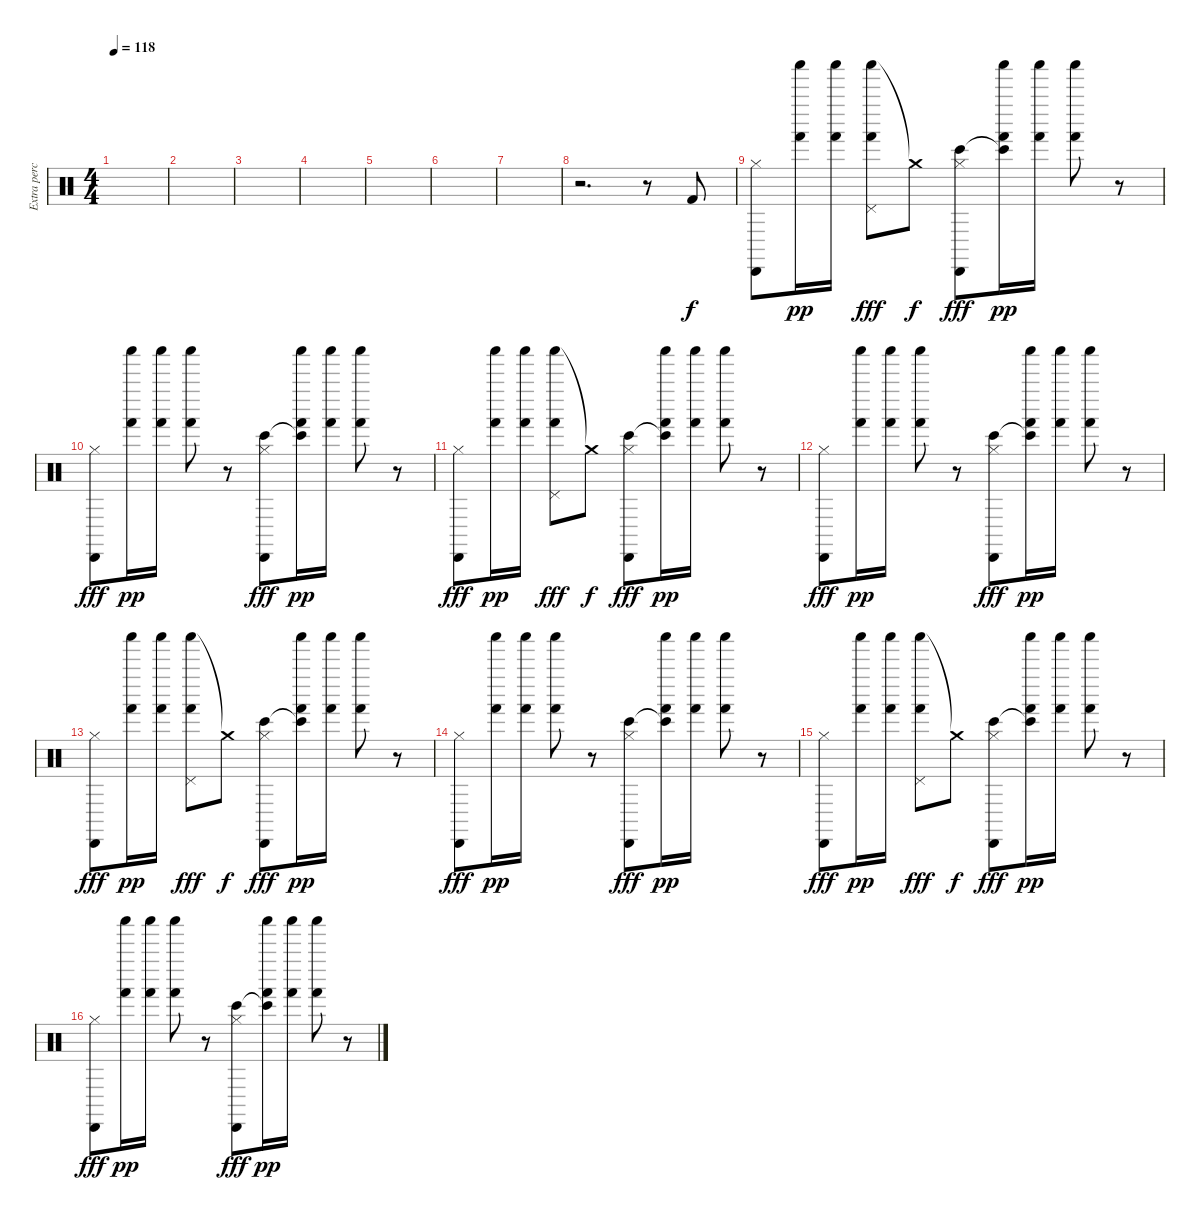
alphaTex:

\track ("Extra percussion" "Extra perc") {instrument percussion}
\staff {score}
\articulation defaults
\ts (4 4)
\tempo 118
\clef neutral
\ks c
|
|
|
|
|
|
|
r.2{d} r.8 "Kick (hit) 2".8 |
("Cabasa (hit)" "Hi-Hat (closed)").8 ("Shaker (hit)" "Hand (hit)").16{dy pp} ("Shaker (hit)" "Hand (hit)").16 ("Shaker (hit)" "Hand (hit)" "Pedal Hi-Hat (hit)").8{dy fff} "Crash medium (hit)"{t}.8{dy f} ("Cabasa (hit)" "Hi-Hat (closed)" "Bongo High (hit)").8{dy fff} ("Shaker (hit)" "Hand (hit)" "Bongo High (hit)"{t}).16{dy pp} ("Shaker (hit)" "Hand (hit)").16 ("Shaker (hit)" "Hand (hit)").8 r.8 |
("Cabasa (hit)" "Hi-Hat (closed)").8{dy fff} ("Shaker (hit)" "Hand (hit)").16{dy pp} ("Shaker (hit)" "Hand (hit)").16 ("Shaker (hit)" "Hand (hit)").8 r.8 ("Cabasa (hit)" "Hi-Hat (closed)" "Bongo High (hit)").8{dy fff} ("Shaker (hit)" "Hand (hit)" "Bongo High (hit)"{t}).16{dy pp} ("Shaker (hit)" "Hand (hit)").16 ("Shaker (hit)" "Hand (hit)").8 r.8 |
("Cabasa (hit)" "Hi-Hat (closed)").8{dy fff} ("Shaker (hit)" "Hand (hit)").16{dy pp} ("Shaker (hit)" "Hand (hit)").16 ("Shaker (hit)" "Hand (hit)" "Pedal Hi-Hat (hit)").8{dy fff} "Crash medium (hit)"{t}.8{dy f} ("Cabasa (hit)" "Hi-Hat (closed)" "Bongo High (hit)").8{dy fff} ("Shaker (hit)" "Hand (hit)" "Bongo High (hit)"{t}).16{dy pp} ("Shaker (hit)" "Hand (hit)").16 ("Shaker (hit)" "Hand (hit)").8 r.8 |
("Cabasa (hit)" "Hi-Hat (closed)").8{dy fff} ("Shaker (hit)" "Hand (hit)").16{dy pp} ("Shaker (hit)" "Hand (hit)").16 ("Shaker (hit)" "Hand (hit)").8 r.8 ("Cabasa (hit)" "Hi-Hat (closed)" "Bongo High (hit)").8{dy fff} ("Shaker (hit)" "Hand (hit)" "Bongo High (hit)"{t}).16{dy pp} ("Shaker (hit)" "Hand (hit)").16 ("Shaker (hit)" "Hand (hit)").8 r.8 |
("Cabasa (hit)" "Hi-Hat (closed)").8{dy fff} ("Shaker (hit)" "Hand (hit)").16{dy pp} ("Shaker (hit)" "Hand (hit)").16 ("Shaker (hit)" "Hand (hit)" "Pedal Hi-Hat (hit)").8{dy fff} "Crash medium (hit)"{t}.8{dy f} ("Cabasa (hit)" "Hi-Hat (closed)" "Bongo High (hit)").8{dy fff} ("Shaker (hit)" "Hand (hit)" "Bongo High (hit)"{t}).16{dy pp} ("Shaker (hit)" "Hand (hit)").16 ("Shaker (hit)" "Hand (hit)").8 r.8 |
("Cabasa (hit)" "Hi-Hat (closed)").8{dy fff} ("Shaker (hit)" "Hand (hit)").16{dy pp} ("Shaker (hit)" "Hand (hit)").16 ("Shaker (hit)" "Hand (hit)").8 r.8 ("Cabasa (hit)" "Hi-Hat (closed)" "Bongo High (hit)").8{dy fff} ("Shaker (hit)" "Hand (hit)" "Bongo High (hit)"{t}).16{dy pp} ("Shaker (hit)" "Hand (hit)").16 ("Shaker (hit)" "Hand (hit)").8 r.8 |
("Cabasa (hit)" "Hi-Hat (closed)").8{dy fff} ("Shaker (hit)" "Hand (hit)").16{dy pp} ("Shaker (hit)" "Hand (hit)").16 ("Shaker (hit)" "Hand (hit)" "Pedal Hi-Hat (hit)").8{dy fff} "Crash medium (hit)"{t}.8{dy f} ("Cabasa (hit)" "Hi-Hat (closed)" "Bongo High (hit)").8{dy fff} ("Shaker (hit)" "Hand (hit)" "Bongo High (hit)"{t}).16{dy pp} ("Shaker (hit)" "Hand (hit)").16 ("Shaker (hit)" "Hand (hit)").8 r.8 |
("Cabasa (hit)" "Hi-Hat (closed)").8{dy fff} ("Shaker (hit)" "Hand (hit)").16{dy pp} ("Shaker (hit)" "Hand (hit)").16 ("Shaker (hit)" "Hand (hit)").8 r.8 ("Cabasa (hit)" "Hi-Hat (closed)" "Bongo High (hit)").8{dy fff} ("Shaker (hit)" "Hand (hit)" "Bongo High (hit)"{t}).16{dy pp} ("Shaker (hit)" "Hand (hit)").16 ("Shaker (hit)" "Hand (hit)").8 r.8
